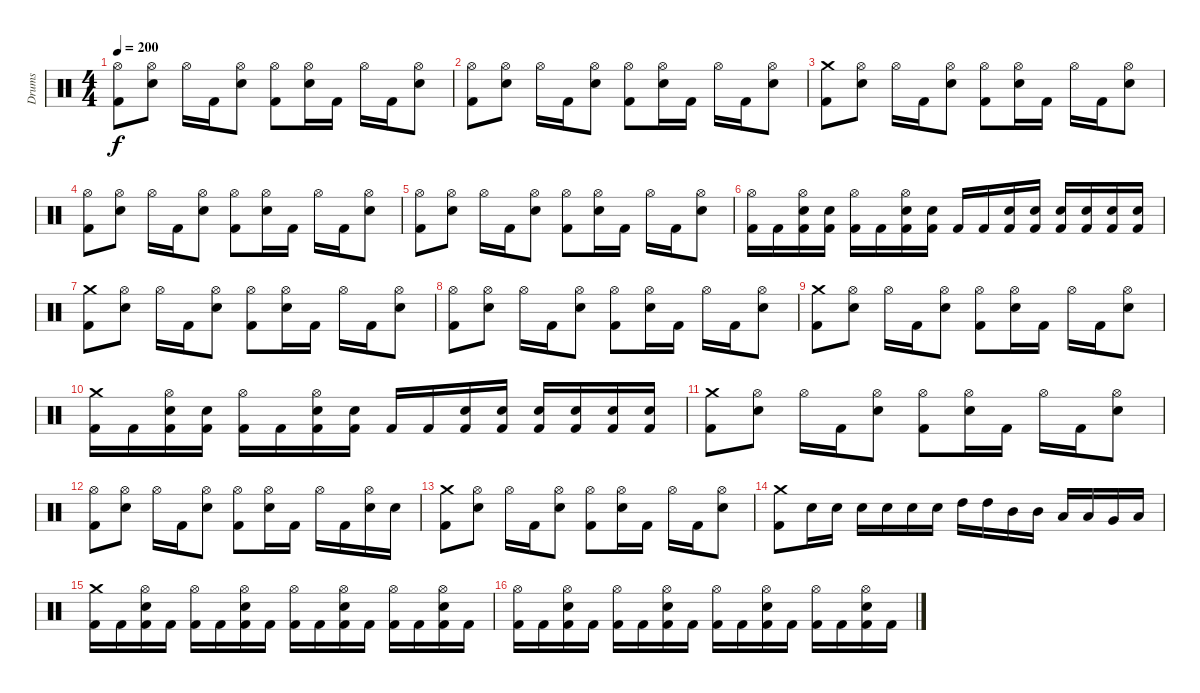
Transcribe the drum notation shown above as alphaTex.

\track ("Drums" "Drums") {instrument percussion}
\staff {score}
\articulation defaults
\ts (4 4)
\tempo 200
\clef neutral
\ks c
("Hi-Hat (open)" "Kick (hit) 2").8{dy f} ("Hi-Hat (open)" "Snare (hit) 2").8 "Hi-Hat (open)".16 "Kick (hit) 2".16 ("Hi-Hat (open)" "Snare (hit) 2").8 ("Hi-Hat (open)" "Kick (hit) 2").8 ("Hi-Hat (open)" "Snare (hit) 2").16 "Kick (hit) 2".16 "Hi-Hat (open)".16 "Kick (hit) 2".16 ("Hi-Hat (open)" "Snare (hit) 2").8 |
("Hi-Hat (open)" "Kick (hit) 2").8 ("Hi-Hat (open)" "Snare (hit) 2").8 "Hi-Hat (open)".16 "Kick (hit) 2".16 ("Hi-Hat (open)" "Snare (hit) 2").8 ("Hi-Hat (open)" "Kick (hit) 2").8 ("Hi-Hat (open)" "Snare (hit) 2").16 "Kick (hit) 2".16 "Hi-Hat (open)".16 "Kick (hit) 2".16 ("Hi-Hat (open)" "Snare (hit) 2").8 |
("Crash medium (hit)" "Kick (hit) 2").8 ("Hi-Hat (open)" "Snare (hit) 2").8 "Hi-Hat (open)".16 "Kick (hit) 2".16 ("Hi-Hat (open)" "Snare (hit) 2").8 ("Hi-Hat (open)" "Kick (hit) 2").8 ("Hi-Hat (open)" "Snare (hit) 2").16 "Kick (hit) 2".16 "Hi-Hat (open)".16 "Kick (hit) 2".16 ("Hi-Hat (open)" "Snare (hit) 2").8 |
("Hi-Hat (open)" "Kick (hit) 2").8 ("Hi-Hat (open)" "Snare (hit) 2").8 "Hi-Hat (open)".16 "Kick (hit) 2".16 ("Hi-Hat (open)" "Snare (hit) 2").8 ("Hi-Hat (open)" "Kick (hit) 2").8 ("Hi-Hat (open)" "Snare (hit) 2").16 "Kick (hit) 2".16 "Hi-Hat (open)".16 "Kick (hit) 2".16 ("Hi-Hat (open)" "Snare (hit) 2").8 |
("Hi-Hat (open)" "Kick (hit) 2").8 ("Hi-Hat (open)" "Snare (hit) 2").8 "Hi-Hat (open)".16 "Kick (hit) 2".16 ("Hi-Hat (open)" "Snare (hit) 2").8 ("Hi-Hat (open)" "Kick (hit) 2").8 ("Hi-Hat (open)" "Snare (hit) 2").16 "Kick (hit) 2".16 "Hi-Hat (open)".16 "Kick (hit) 2".16 ("Hi-Hat (open)" "Snare (hit) 2").8 |
("Hi-Hat (open)" "Kick (hit) 2").16 "Kick (hit) 2".16 ("Hi-Hat (open)" "Snare (hit) 2" "Kick (hit) 2").16 ("Snare (hit) 2" "Kick (hit) 2").16 ("Hi-Hat (open)" "Kick (hit) 2").16 "Kick (hit) 2".16 ("Hi-Hat (open)" "Snare (hit) 2" "Kick (hit) 2").16 ("Snare (hit) 2" "Kick (hit) 2").16 "Kick (hit) 2".16 "Kick (hit) 2".16 ("Snare (hit) 2" "Kick (hit) 2").16 ("Snare (hit) 2" "Kick (hit) 2").16 ("Snare (hit) 2" "Kick (hit) 2").16 ("Snare (hit) 2" "Kick (hit) 2").16 ("Snare (hit) 2" "Kick (hit) 2").16 ("Snare (hit) 2" "Kick (hit) 2").16 |
("Crash medium (hit)" "Kick (hit) 2").8 ("Hi-Hat (open)" "Snare (hit) 2").8 "Hi-Hat (open)".16 "Kick (hit) 2".16 ("Hi-Hat (open)" "Snare (hit) 2").8 ("Hi-Hat (open)" "Kick (hit) 2").8 ("Hi-Hat (open)" "Snare (hit) 2").16 "Kick (hit) 2".16 "Hi-Hat (open)".16 "Kick (hit) 2".16 ("Hi-Hat (open)" "Snare (hit) 2").8 |
("Hi-Hat (open)" "Kick (hit) 2").8 ("Hi-Hat (open)" "Snare (hit) 2").8 "Hi-Hat (open)".16 "Kick (hit) 2".16 ("Hi-Hat (open)" "Snare (hit) 2").8 ("Hi-Hat (open)" "Kick (hit) 2").8 ("Hi-Hat (open)" "Snare (hit) 2").16 "Kick (hit) 2".16 "Hi-Hat (open)".16 "Kick (hit) 2".16 ("Hi-Hat (open)" "Snare (hit) 2").8 |
("Crash medium (hit)" "Kick (hit) 2").8 ("Hi-Hat (open)" "Snare (hit) 2").8 "Hi-Hat (open)".16 "Kick (hit) 2".16 ("Hi-Hat (open)" "Snare (hit) 2").8 ("Hi-Hat (open)" "Kick (hit) 2").8 ("Hi-Hat (open)" "Snare (hit) 2").16 "Kick (hit) 2".16 "Hi-Hat (open)".16 "Kick (hit) 2".16 ("Hi-Hat (open)" "Snare (hit) 2").8 |
("Crash medium (hit)" "Kick (hit) 2").16 "Kick (hit) 2".16 ("Hi-Hat (open)" "Snare (hit) 2" "Kick (hit) 2").16 ("Snare (hit) 2" "Kick (hit) 2").16 ("Hi-Hat (open)" "Kick (hit) 2").16 "Kick (hit) 2".16 ("Hi-Hat (open)" "Snare (hit) 2" "Kick (hit) 2").16 ("Snare (hit) 2" "Kick (hit) 2").16 "Kick (hit) 2".16 "Kick (hit) 2".16 ("Snare (hit) 2" "Kick (hit) 2").16 ("Snare (hit) 2" "Kick (hit) 2").16 ("Snare (hit) 2" "Kick (hit) 2").16 ("Snare (hit) 2" "Kick (hit) 2").16 ("Snare (hit) 2" "Kick (hit) 2").16 ("Snare (hit) 2" "Kick (hit) 2").16 |
("Crash medium (hit)" "Kick (hit) 2").8 ("Hi-Hat (open)" "Snare (hit) 2").8 "Hi-Hat (open)".16 "Kick (hit) 2".16 ("Hi-Hat (open)" "Snare (hit) 2").8 ("Hi-Hat (open)" "Kick (hit) 2").8 ("Hi-Hat (open)" "Snare (hit) 2").16 "Kick (hit) 2".16 "Hi-Hat (open)".16 "Kick (hit) 2".16 ("Hi-Hat (open)" "Snare (hit) 2").8 |
("Hi-Hat (open)" "Kick (hit) 2").8 ("Hi-Hat (open)" "Snare (hit) 2").8 "Hi-Hat (open)".16 "Kick (hit) 2".16 ("Hi-Hat (open)" "Snare (hit) 2").8 ("Hi-Hat (open)" "Kick (hit) 2").8 ("Hi-Hat (open)" "Snare (hit) 2").16 "Kick (hit) 2".16 "Hi-Hat (open)".16 "Kick (hit) 2".16 ("Hi-Hat (open)" "Snare (hit) 2").16 "Snare (hit) 2".16 |
("Crash medium (hit)" "Kick (hit) 2").8 ("Hi-Hat (open)" "Snare (hit) 2").8 "Hi-Hat (open)".16 "Kick (hit) 2".16 ("Hi-Hat (open)" "Snare (hit) 2").8 ("Hi-Hat (open)" "Kick (hit) 2").8 ("Hi-Hat (open)" "Snare (hit) 2").16 "Kick (hit) 2".16 "Hi-Hat (open)".16 "Kick (hit) 2".16 ("Hi-Hat (open)" "Snare (hit) 2").8 |
("Crash medium (hit)" "Kick (hit) 2").8 "Snare (hit) 2".16 "Snare (hit) 2".16 "Snare (hit) 2".16 "Snare (hit) 2".16 "Snare (hit) 2".16 "Snare (hit) 2".16 "High Tom (hit)".16 "High Tom (hit)".16 "Mid Tom (hit)".16 "Mid Tom (hit)".16 "Low Tom (hit)".16 "Low Tom (hit)".16 "Very Low Tom (hit)".16 "Low Floor Tom (hit)".16 |
("Crash medium (hit)" "Kick (hit) 2").16 "Kick (hit) 2".16 ("Hi-Hat (open)" "Snare (hit) 2" "Kick (hit) 2").16 "Kick (hit) 2".16 ("Hi-Hat (open)" "Kick (hit) 2").16 "Kick (hit) 2".16 ("Hi-Hat (open)" "Snare (hit) 2" "Kick (hit) 2").16 "Kick (hit) 2".16 ("Hi-Hat (open)" "Kick (hit) 2").16 "Kick (hit) 2".16 ("Hi-Hat (open)" "Snare (hit) 2" "Kick (hit) 2").16 "Kick (hit) 2".16 ("Hi-Hat (open)" "Kick (hit) 2").16 "Kick (hit) 2".16 ("Hi-Hat (open)" "Snare (hit) 2" "Kick (hit) 2").16 "Kick (hit) 2".16 |
("Hi-Hat (open)" "Kick (hit) 2").16 "Kick (hit) 2".16 ("Hi-Hat (open)" "Snare (hit) 2" "Kick (hit) 2").16 "Kick (hit) 2".16 ("Hi-Hat (open)" "Kick (hit) 2").16 "Kick (hit) 2".16 ("Hi-Hat (open)" "Snare (hit) 2" "Kick (hit) 2").16 "Kick (hit) 2".16 ("Hi-Hat (open)" "Kick (hit) 2").16 "Kick (hit) 2".16 ("Hi-Hat (open)" "Snare (hit) 2" "Kick (hit) 2").16 "Kick (hit) 2".16 ("Hi-Hat (open)" "Kick (hit) 2").16 "Kick (hit) 2".16 ("Hi-Hat (open)" "Snare (hit) 2" "Kick (hit) 2").16 "Kick (hit) 2".16
